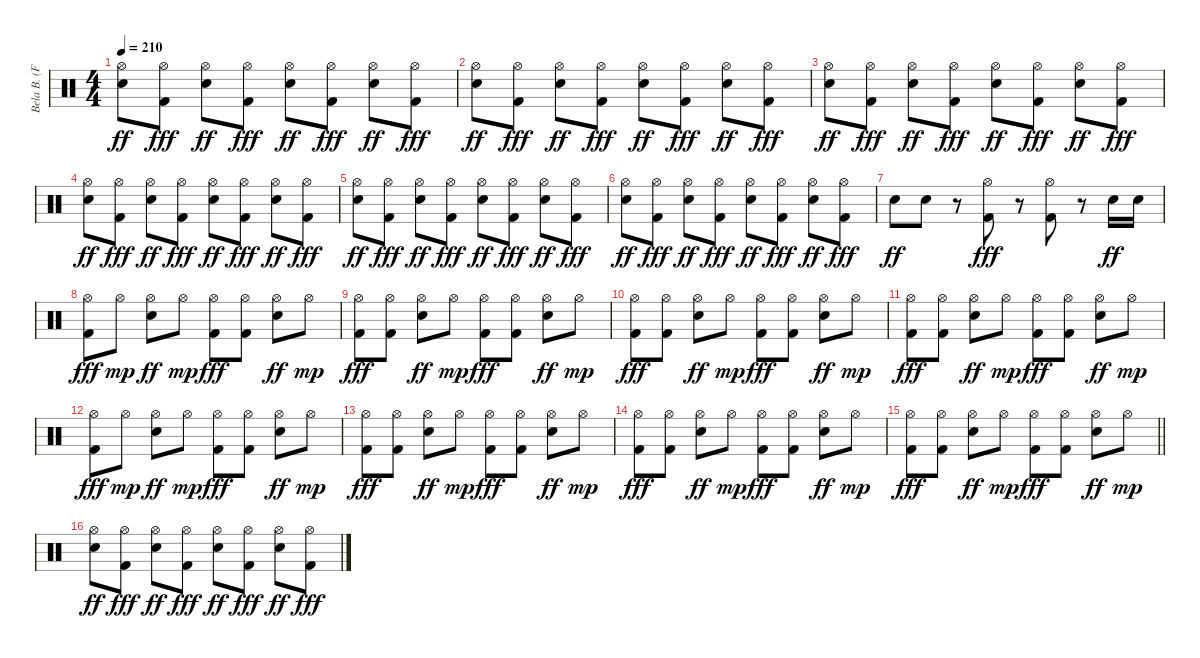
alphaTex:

\track ("Bela B. (Felsenheimer)" "Bela B. (F") {instrument percussion}
\staff {score}
\articulation defaults
\ts (4 4)
\tempo 210
\clef neutral
\ks c
("Hi-Hat (open)" "Electric Snare (hit)").8{dy ff} ("Hi-Hat (open)" "Kick (hit) 2").8{dy fff} ("Hi-Hat (open)" "Electric Snare (hit)").8{dy ff} ("Hi-Hat (open)" "Kick (hit) 2").8{dy fff} ("Hi-Hat (open)" "Electric Snare (hit)").8{dy ff} ("Hi-Hat (open)" "Kick (hit) 2").8{dy fff} ("Hi-Hat (open)" "Electric Snare (hit)").8{dy ff} ("Hi-Hat (open)" "Kick (hit) 2").8{dy fff} |
("Hi-Hat (open)" "Electric Snare (hit)").8{dy ff} ("Hi-Hat (open)" "Kick (hit) 2").8{dy fff} ("Hi-Hat (open)" "Electric Snare (hit)").8{dy ff} ("Hi-Hat (open)" "Kick (hit) 2").8{dy fff} ("Hi-Hat (open)" "Electric Snare (hit)").8{dy ff} ("Hi-Hat (open)" "Kick (hit) 2").8{dy fff} ("Hi-Hat (open)" "Electric Snare (hit)").8{dy ff} ("Hi-Hat (open)" "Kick (hit) 2").8{dy fff} |
("Hi-Hat (open)" "Electric Snare (hit)").8{dy ff} ("Hi-Hat (open)" "Kick (hit) 2").8{dy fff} ("Hi-Hat (open)" "Electric Snare (hit)").8{dy ff} ("Hi-Hat (open)" "Kick (hit) 2").8{dy fff} ("Hi-Hat (open)" "Electric Snare (hit)").8{dy ff} ("Hi-Hat (open)" "Kick (hit) 2").8{dy fff} ("Hi-Hat (open)" "Electric Snare (hit)").8{dy ff} ("Hi-Hat (open)" "Kick (hit) 2").8{dy fff} |
("Hi-Hat (open)" "Electric Snare (hit)").8{dy ff} ("Hi-Hat (open)" "Kick (hit) 2").8{dy fff} ("Hi-Hat (open)" "Electric Snare (hit)").8{dy ff} ("Hi-Hat (open)" "Kick (hit) 2").8{dy fff} ("Hi-Hat (open)" "Electric Snare (hit)").8{dy ff} ("Hi-Hat (open)" "Kick (hit) 2").8{dy fff} ("Hi-Hat (open)" "Electric Snare (hit)").8{dy ff} ("Hi-Hat (open)" "Kick (hit) 2").8{dy fff} |
("Hi-Hat (open)" "Electric Snare (hit)").8{dy ff} ("Hi-Hat (open)" "Kick (hit) 2").8{dy fff} ("Hi-Hat (open)" "Electric Snare (hit)").8{dy ff} ("Hi-Hat (open)" "Kick (hit) 2").8{dy fff} ("Hi-Hat (open)" "Electric Snare (hit)").8{dy ff} ("Hi-Hat (open)" "Kick (hit) 2").8{dy fff} ("Hi-Hat (open)" "Electric Snare (hit)").8{dy ff} ("Hi-Hat (open)" "Kick (hit) 2").8{dy fff} |
("Hi-Hat (open)" "Electric Snare (hit)").8{dy ff} ("Hi-Hat (open)" "Kick (hit) 2").8{dy fff} ("Hi-Hat (open)" "Electric Snare (hit)").8{dy ff} ("Hi-Hat (open)" "Kick (hit) 2").8{dy fff} ("Hi-Hat (open)" "Electric Snare (hit)").8{dy ff} ("Hi-Hat (open)" "Kick (hit) 2").8{dy fff} ("Hi-Hat (open)" "Electric Snare (hit)").8{dy ff} ("Hi-Hat (open)" "Kick (hit) 2").8{dy fff} |
"Electric Snare (hit)".8{dy ff} "Electric Snare (hit)".8 r.8 ("Hi-Hat (open)" "Kick (hit) 2").8{dy fff} r.8 ("Hi-Hat (open)" "Kick (hit) 2").8 r.8 "Electric Snare (hit)".16{dy ff} "Electric Snare (hit)".16 |
("Hi-Hat (open)" "Kick (hit) 2").8{dy fff} "Hi-Hat (open)".8{dy mp} ("Hi-Hat (open)" "Electric Snare (hit)").8{dy ff} "Hi-Hat (open)".8{dy mp} ("Hi-Hat (open)" "Kick (hit) 2").8{dy fff} ("Hi-Hat (open)" "Kick (hit) 2").8 ("Hi-Hat (open)" "Electric Snare (hit)").8{dy ff} "Hi-Hat (open)".8{dy mp} |
("Hi-Hat (open)" "Kick (hit) 2").8{dy fff} ("Hi-Hat (open)" "Kick (hit) 2").8 ("Hi-Hat (open)" "Electric Snare (hit)").8{dy ff} "Hi-Hat (open)".8{dy mp} ("Hi-Hat (open)" "Kick (hit) 2").8{dy fff} ("Hi-Hat (open)" "Kick (hit) 2").8 ("Hi-Hat (open)" "Electric Snare (hit)").8{dy ff} "Hi-Hat (open)".8{dy mp} |
("Hi-Hat (open)" "Kick (hit) 2").8{dy fff} ("Hi-Hat (open)" "Kick (hit) 2").8 ("Hi-Hat (open)" "Electric Snare (hit)").8{dy ff} "Hi-Hat (open)".8{dy mp} ("Hi-Hat (open)" "Kick (hit) 2").8{dy fff} ("Hi-Hat (open)" "Kick (hit) 2").8 ("Hi-Hat (open)" "Electric Snare (hit)").8{dy ff} "Hi-Hat (open)".8{dy mp} |
("Hi-Hat (open)" "Kick (hit) 2").8{dy fff} ("Hi-Hat (open)" "Kick (hit) 2").8 ("Hi-Hat (open)" "Electric Snare (hit)").8{dy ff} "Hi-Hat (open)".8{dy mp} ("Hi-Hat (open)" "Kick (hit) 2").8{dy fff} ("Hi-Hat (open)" "Kick (hit) 2").8 ("Hi-Hat (open)" "Electric Snare (hit)").8{dy ff} "Hi-Hat (open)".8{dy mp} |
("Hi-Hat (open)" "Kick (hit) 2").8{dy fff} "Hi-Hat (open)".8{dy mp} ("Hi-Hat (open)" "Electric Snare (hit)").8{dy ff} "Hi-Hat (open)".8{dy mp} ("Hi-Hat (open)" "Kick (hit) 2").8{dy fff} ("Hi-Hat (open)" "Kick (hit) 2").8 ("Hi-Hat (open)" "Electric Snare (hit)").8{dy ff} "Hi-Hat (open)".8{dy mp} |
("Hi-Hat (open)" "Kick (hit) 2").8{dy fff} ("Hi-Hat (open)" "Kick (hit) 2").8 ("Hi-Hat (open)" "Electric Snare (hit)").8{dy ff} "Hi-Hat (open)".8{dy mp} ("Hi-Hat (open)" "Kick (hit) 2").8{dy fff} ("Hi-Hat (open)" "Kick (hit) 2").8 ("Hi-Hat (open)" "Electric Snare (hit)").8{dy ff} "Hi-Hat (open)".8{dy mp} |
("Hi-Hat (open)" "Kick (hit) 2").8{dy fff} ("Hi-Hat (open)" "Kick (hit) 2").8 ("Hi-Hat (open)" "Electric Snare (hit)").8{dy ff} "Hi-Hat (open)".8{dy mp} ("Hi-Hat (open)" "Kick (hit) 2").8{dy fff} ("Hi-Hat (open)" "Kick (hit) 2").8 ("Hi-Hat (open)" "Electric Snare (hit)").8{dy ff} "Hi-Hat (open)".8{dy mp} |
\barLineRight lightlight
("Hi-Hat (open)" "Kick (hit) 2").8{dy fff} ("Hi-Hat (open)" "Kick (hit) 2").8 ("Hi-Hat (open)" "Electric Snare (hit)").8{dy ff} "Hi-Hat (open)".8{dy mp} ("Hi-Hat (open)" "Kick (hit) 2").8{dy fff} ("Hi-Hat (open)" "Kick (hit) 2").8 ("Hi-Hat (open)" "Electric Snare (hit)").8{dy ff} "Hi-Hat (open)".8{dy mp} |
("Hi-Hat (open)" "Electric Snare (hit)").8{dy ff} ("Hi-Hat (open)" "Kick (hit) 2").8{dy fff} ("Hi-Hat (open)" "Electric Snare (hit)").8{dy ff} ("Hi-Hat (open)" "Kick (hit) 2").8{dy fff} ("Hi-Hat (open)" "Electric Snare (hit)").8{dy ff} ("Hi-Hat (open)" "Kick (hit) 2").8{dy fff} ("Hi-Hat (open)" "Electric Snare (hit)").8{dy ff} ("Hi-Hat (open)" "Kick (hit) 2").8{dy fff}
